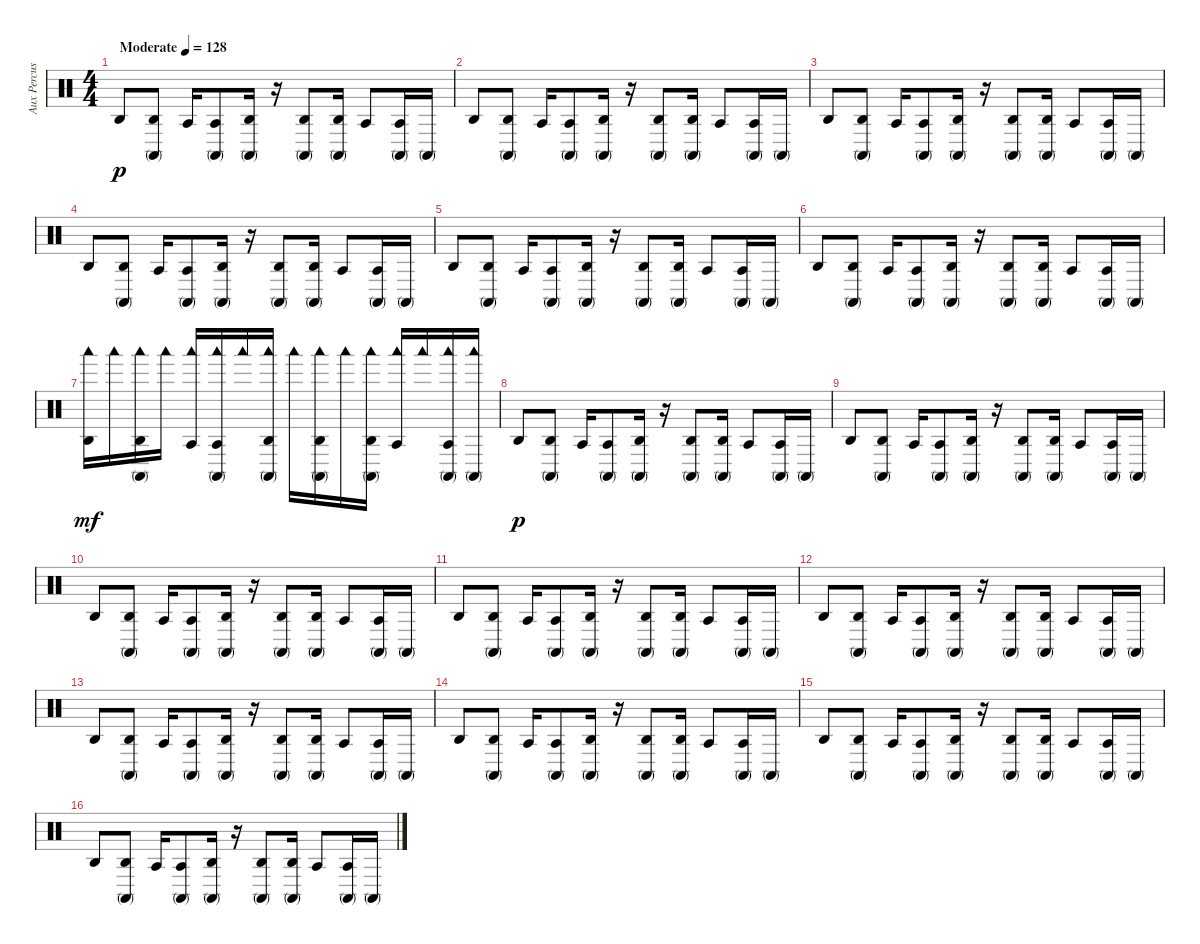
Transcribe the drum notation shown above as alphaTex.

\track ("Aux Percussion" "Aux Percus") {instrument percussion}
\staff {score}
\articulation defaults
\ts (4 4)
\tempo (128 "Moderate")
\clef neutral
\ks c "Agogo high (hit)".8{dy p}
("Conga high (mute)" "Agogo high (hit)").8 "Agogo tow (hit)".16 ("Conga high (mute)" "Agogo tow (hit)").8 ("Conga high (mute)" "Agogo high (hit)").16 r.16 ("Conga high (mute)" "Agogo high (hit)").8 ("Conga high (mute)" "Agogo high (hit)").16 "Agogo tow (hit)".8 ("Agogo tow (hit)" "Conga high (mute)").16 "Conga high (mute)".16 |
"Agogo high (hit)".8 ("Agogo high (hit)" "Conga high (mute)").8 "Agogo tow (hit)".16 ("Agogo tow (hit)" "Conga high (mute)").8 ("Agogo high (hit)" "Conga high (mute)").16 r.16 ("Agogo high (hit)" "Conga high (mute)").8 ("Agogo high (hit)" "Conga high (mute)").16 "Agogo tow (hit)".8 ("Agogo tow (hit)" "Conga high (mute)").16 "Conga high (mute)".16 |
"Agogo high (hit)".8 ("Agogo high (hit)" "Conga high (mute)").8 "Agogo tow (hit)".16 ("Agogo tow (hit)" "Conga high (mute)").8 ("Conga high (mute)" "Agogo high (hit)").16 r.16 ("Conga high (mute)" "Agogo high (hit)").8 ("Agogo high (hit)" "Conga high (mute)").16 "Agogo tow (hit)".8 ("Conga high (mute)" "Agogo tow (hit)").16 "Conga high (mute)".16 |
"Agogo high (hit)".8 ("Conga high (mute)" "Agogo high (hit)").8 "Agogo tow (hit)".16 ("Agogo tow (hit)" "Conga high (mute)").8 ("Agogo high (hit)" "Conga high (mute)").16 r.16 ("Conga high (mute)" "Agogo high (hit)").8 ("Conga high (mute)" "Agogo high (hit)").16 "Agogo tow (hit)".8 ("Agogo tow (hit)" "Conga high (mute)").16 "Conga high (mute)".16 |
"Agogo high (hit)".8 ("Conga high (mute)" "Agogo high (hit)").8 "Agogo tow (hit)".16 ("Conga high (mute)" "Agogo tow (hit)").8 ("Agogo high (hit)" "Conga high (mute)").16 r.16 ("Agogo high (hit)" "Conga high (mute)").8 ("Conga high (mute)" "Agogo high (hit)").16 "Agogo tow (hit)".8 ("Agogo tow (hit)" "Conga high (mute)").16 "Conga high (mute)".16 |
"Agogo high (hit)".8 ("Agogo high (hit)" "Conga high (mute)").8 "Agogo tow (hit)".16 ("Conga high (mute)" "Agogo tow (hit)").8 ("Conga high (mute)" "Agogo high (hit)").16 r.16 ("Conga high (mute)" "Agogo high (hit)").8 ("Agogo high (hit)" "Conga high (mute)").16 "Agogo tow (hit)".8 ("Conga high (mute)" "Agogo tow (hit)").16 "Conga high (mute)".16 |
("Agogo high (hit)" "Woodblock low (hit)").16{dy mf} "Woodblock low (hit)".16 ("Conga high (mute)" "Agogo high (hit)" "Woodblock low (hit)").16 "Woodblock low (hit)".16 ("Agogo tow (hit)" "Woodblock low (hit)").16 ("Conga high (mute)" "Agogo tow (hit)" "Woodblock low (hit)").16 "Woodblock low (hit)".16 ("Agogo high (hit)" "Conga high (mute)" "Woodblock low (hit)").16 "Woodblock low (hit)".16 ("Agogo high (hit)" "Conga high (mute)" "Woodblock low (hit)").16 "Woodblock low (hit)".16 ("Conga high (mute)" "Agogo high (hit)" "Woodblock low (hit)").16 ("Agogo tow (hit)" "Woodblock low (hit)").16 "Woodblock low (hit)".16 ("Agogo tow (hit)" "Conga high (mute)" "Woodblock low (hit)").16 ("Conga high (mute)" "Woodblock low (hit)").16 |
"Agogo high (hit)".8{dy p} ("Agogo high (hit)" "Conga high (mute)").8 "Agogo tow (hit)".16 ("Conga high (mute)" "Agogo tow (hit)").8 ("Conga high (mute)" "Agogo high (hit)").16 r.16 ("Conga high (mute)" "Agogo high (hit)").8 ("Agogo high (hit)" "Conga high (mute)").16 "Agogo tow (hit)".8 ("Conga high (mute)" "Agogo tow (hit)").16 "Conga high (mute)".16 |
"Agogo high (hit)".8 ("Agogo high (hit)" "Conga high (mute)").8 "Agogo tow (hit)".16 ("Agogo tow (hit)" "Conga high (mute)").8 ("Conga high (mute)" "Agogo high (hit)").16 r.16 ("Conga high (mute)" "Agogo high (hit)").8 ("Agogo high (hit)" "Conga high (mute)").16 "Agogo tow (hit)".8 ("Conga high (mute)" "Agogo tow (hit)").16 "Conga high (mute)".16 |
"Agogo high (hit)".8 ("Conga high (mute)" "Agogo high (hit)").8 "Agogo tow (hit)".16 ("Agogo tow (hit)" "Conga high (mute)").8 ("Agogo high (hit)" "Conga high (mute)").16 r.16 ("Agogo high (hit)" "Conga high (mute)").8 ("Conga high (mute)" "Agogo high (hit)").16 "Agogo tow (hit)".8 ("Agogo tow (hit)" "Conga high (mute)").16 "Conga high (mute)".16 |
"Agogo high (hit)".8 ("Conga high (mute)" "Agogo high (hit)").8 "Agogo tow (hit)".16 ("Conga high (mute)" "Agogo tow (hit)").8 ("Agogo high (hit)" "Conga high (mute)").16 r.16 ("Agogo high (hit)" "Conga high (mute)").8 ("Conga high (mute)" "Agogo high (hit)").16 "Agogo tow (hit)".8 ("Agogo tow (hit)" "Conga high (mute)").16 "Conga high (mute)".16 |
"Agogo high (hit)".8 ("Agogo high (hit)" "Conga high (mute)").8 "Agogo tow (hit)".16 ("Conga high (mute)" "Agogo tow (hit)").8 ("Conga high (mute)" "Agogo high (hit)").16 r.16 ("Conga high (mute)" "Agogo high (hit)").8 ("Agogo high (hit)" "Conga high (mute)").16 "Agogo tow (hit)".8 ("Conga high (mute)" "Agogo tow (hit)").16 "Conga high (mute)".16 |
"Agogo high (hit)".8 ("Agogo high (hit)" "Conga high (mute)").8 "Agogo tow (hit)".16 ("Agogo tow (hit)" "Conga high (mute)").8 ("Conga high (mute)" "Agogo high (hit)").16 r.16 ("Conga high (mute)" "Agogo high (hit)").8 ("Agogo high (hit)" "Conga high (mute)").16 "Agogo tow (hit)".8 ("Conga high (mute)" "Agogo tow (hit)").16 "Conga high (mute)".16 |
"Agogo high (hit)".8 ("Conga high (mute)" "Agogo high (hit)").8 "Agogo tow (hit)".16 ("Agogo tow (hit)" "Conga high (mute)").8 ("Agogo high (hit)" "Conga high (mute)").16 r.16 ("Agogo high (hit)" "Conga high (mute)").8 ("Conga high (mute)" "Agogo high (hit)").16 "Agogo tow (hit)".8 ("Agogo tow (hit)" "Conga high (mute)").16 "Conga high (mute)".16 |
"Agogo high (hit)".8 ("Agogo high (hit)" "Conga high (mute)").8 "Agogo tow (hit)".16 ("Conga high (mute)" "Agogo tow (hit)").8 ("Conga high (mute)" "Agogo high (hit)").16 r.16 ("Conga high (mute)" "Agogo high (hit)").8 ("Agogo high (hit)" "Conga high (mute)").16 "Agogo tow (hit)".8 ("Conga high (mute)" "Agogo tow (hit)").16 "Conga high (mute)".16 |
"Agogo high (hit)".8 ("Agogo high (hit)" "Conga high (mute)").8 "Agogo tow (hit)".16 ("Conga high (mute)" "Agogo tow (hit)").8 ("Conga high (mute)" "Agogo high (hit)").16 r.16 ("Conga high (mute)" "Agogo high (hit)").8 ("Agogo high (hit)" "Conga high (mute)").16 "Agogo tow (hit)".8 ("Conga high (mute)" "Agogo tow (hit)").16 "Conga high (mute)".16
